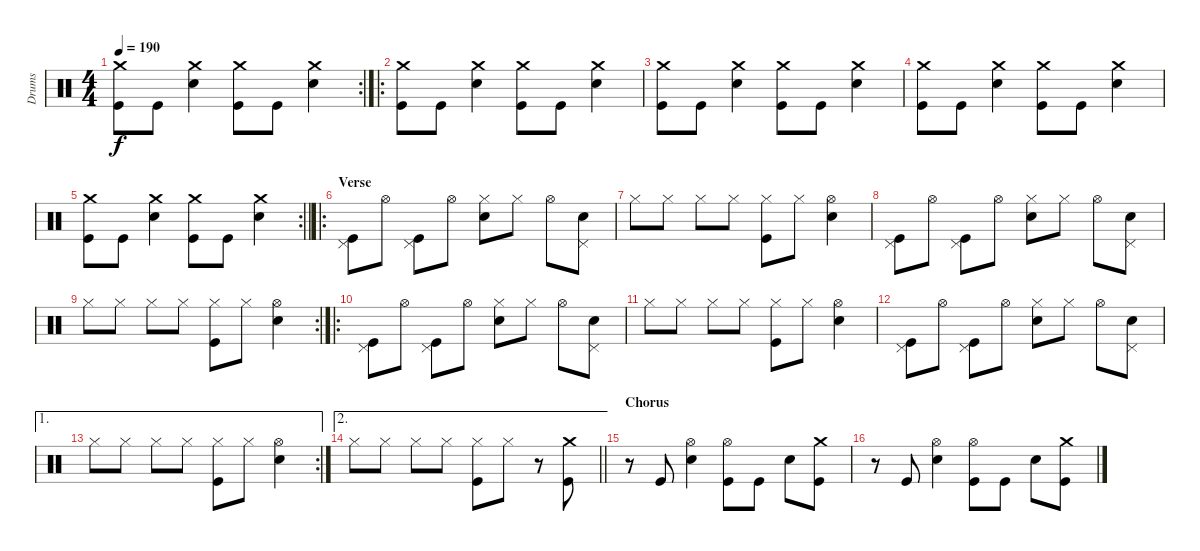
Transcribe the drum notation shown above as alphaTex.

\track ("Drums" "Drums") {instrument percussion}
\staff {score}
\articulation defaults
\rc 2
\ts (4 4)
\tempo 190
\clef neutral
\ks c
("Crash medium (hit)" "Kick (hit)").8{dy f} "Kick (hit)".8 ("Crash medium (hit)" "Snare (hit) 2").4 ("Crash medium (hit)" "Kick (hit)").8 "Kick (hit)".8 ("Crash medium (hit)" "Snare (hit) 2").4 |
\ro
("Crash medium (hit)" "Kick (hit)").8 "Kick (hit)".8 ("Crash medium (hit)" "Snare (hit) 2").4 ("Crash medium (hit)" "Kick (hit)").8 "Kick (hit)".8 ("Crash medium (hit)" "Snare (hit) 2").4 |
("Crash medium (hit)" "Kick (hit)").8 "Kick (hit)".8 ("Crash medium (hit)" "Snare (hit) 2").4 ("Crash medium (hit)" "Kick (hit)").8 "Kick (hit)".8 ("Crash medium (hit)" "Snare (hit) 2").4 |
("Crash medium (hit)" "Kick (hit)").8 "Kick (hit)".8 ("Crash medium (hit)" "Snare (hit) 2").4 ("Crash medium (hit)" "Kick (hit)").8 "Kick (hit)".8 ("Crash medium (hit)" "Snare (hit) 2").4 |
\rc 2
\barLineRight lightlight
("Crash medium (hit)" "Kick (hit)").8 "Kick (hit)".8 ("Crash medium (hit)" "Snare (hit) 2").4 ("Crash medium (hit)" "Kick (hit)").8 "Kick (hit)".8 ("Crash medium (hit)" "Snare (hit) 2").4 |
\ro
\section ("" "Verse")
("Pedal Hi-Hat (hit)" "Kick (hit)").8 "Hi-Hat (open)".8 ("Pedal Hi-Hat (hit)" "Kick (hit)").8 "Hi-Hat (open)".8 ("Hi-Hat (closed)" "Snare (hit) 2").8 "Hi-Hat (closed)".8 "Hi-Hat (open)".8 ("Pedal Hi-Hat (hit)" "Snare (hit) 2").8 |
"Hi-Hat (closed)".8 "Hi-Hat (closed)".8 "Hi-Hat (closed)".8 "Hi-Hat (closed)".8 ("Hi-Hat (closed)" "Kick (hit)").8 "Hi-Hat (closed)".8 ("Hi-Hat (open)" "Snare (hit) 2").4 |
("Pedal Hi-Hat (hit)" "Kick (hit)").8 "Hi-Hat (open)".8 ("Pedal Hi-Hat (hit)" "Kick (hit)").8 "Hi-Hat (open)".8 ("Hi-Hat (closed)" "Snare (hit) 2").8 "Hi-Hat (closed)".8 "Hi-Hat (open)".8 ("Pedal Hi-Hat (hit)" "Snare (hit) 2").8 |
\rc 2 "Hi-Hat (closed)".8 "Hi-Hat (closed)".8 "Hi-Hat (closed)".8 "Hi-Hat (closed)".8
("Hi-Hat (closed)" "Kick (hit)").8 "Hi-Hat (closed)".8 ("Hi-Hat (open)" "Snare (hit) 2").4 |
\ro
("Pedal Hi-Hat (hit)" "Kick (hit)").8 "Hi-Hat (open)".8 ("Pedal Hi-Hat (hit)" "Kick (hit)").8 "Hi-Hat (open)".8 ("Hi-Hat (closed)" "Snare (hit) 2").8 "Hi-Hat (closed)".8 "Hi-Hat (open)".8 ("Pedal Hi-Hat (hit)" "Snare (hit) 2").8 |
"Hi-Hat (closed)".8 "Hi-Hat (closed)".8 "Hi-Hat (closed)".8 "Hi-Hat (closed)".8 ("Hi-Hat (closed)" "Kick (hit)").8 "Hi-Hat (closed)".8 ("Hi-Hat (open)" "Snare (hit) 2").4 |
("Pedal Hi-Hat (hit)" "Kick (hit)").8 "Hi-Hat (open)".8 ("Pedal Hi-Hat (hit)" "Kick (hit)").8 "Hi-Hat (open)".8 ("Hi-Hat (closed)" "Snare (hit) 2").8 "Hi-Hat (closed)".8 "Hi-Hat (open)".8 ("Pedal Hi-Hat (hit)" "Snare (hit) 2").8 |
\ae 1
\rc 2 "Hi-Hat (closed)".8 "Hi-Hat (closed)".8 "Hi-Hat (closed)".8 "Hi-Hat (closed)".8
("Hi-Hat (closed)" "Kick (hit)").8 "Hi-Hat (closed)".8 ("Hi-Hat (open)" "Snare (hit) 2").4 |
\ae 2
\barLineRight lightlight "Hi-Hat (closed)".8 "Hi-Hat (closed)".8 "Hi-Hat (closed)".8 "Hi-Hat (closed)".8
("Hi-Hat (closed)" "Kick (hit)").8 "Hi-Hat (closed)".8 r.8 ("Crash medium (hit)" "Kick (hit)").8 |
\section ("" "Chorus")
r.8 "Kick (hit)".8 ("Hi-Hat (open)" "Snare (hit) 2").4 ("Hi-Hat (open)" "Kick (hit)").8 "Kick (hit)".8 "Snare (hit) 2".8 ("Crash medium (hit)" "Kick (hit)").8 |
r.8 "Kick (hit)".8 ("Hi-Hat (open)" "Snare (hit) 2").4 ("Hi-Hat (open)" "Kick (hit)").8 "Kick (hit)".8 "Snare (hit) 2".8 ("Crash medium (hit)" "Kick (hit)").8
